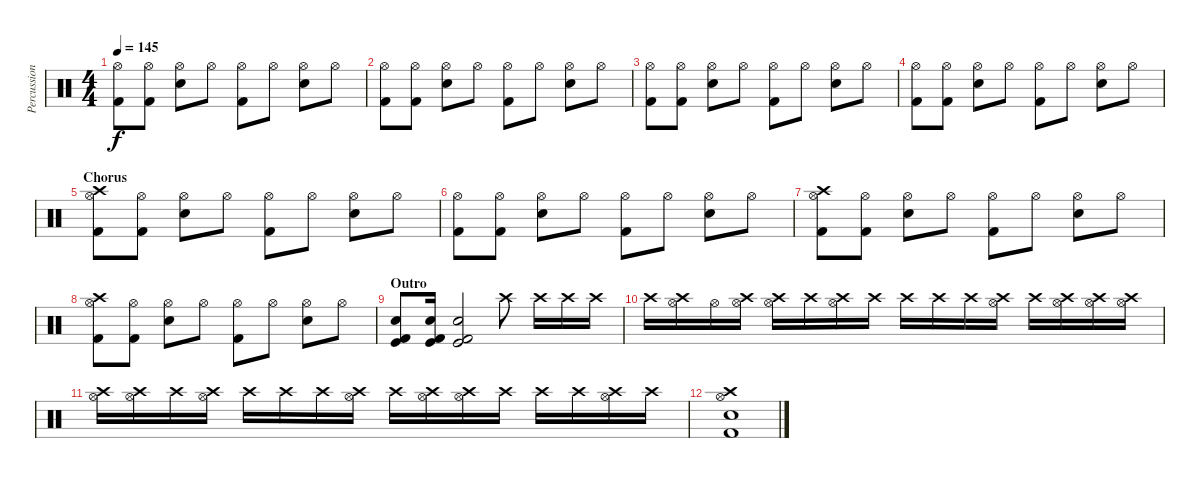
\track ("Percussion" "Percussion") {instrument percussion}
\staff {score}
\articulation defaults
\ts (4 4)
\tempo 145
\clef neutral
\ks c
("Hi-Hat (open)" "Kick (hit) 2").8{dy f} ("Hi-Hat (open)" "Kick (hit) 2").8 ("Hi-Hat (open)" "Snare (hit) 2").8 "Hi-Hat (open)".8 ("Hi-Hat (open)" "Kick (hit) 2").8 "Hi-Hat (open)".8 ("Hi-Hat (open)" "Snare (hit) 2").8 "Hi-Hat (open)".8 |
("Hi-Hat (open)" "Kick (hit) 2").8 ("Hi-Hat (open)" "Kick (hit) 2").8 ("Hi-Hat (open)" "Snare (hit) 2").8 "Hi-Hat (open)".8 ("Hi-Hat (open)" "Kick (hit) 2").8 "Hi-Hat (open)".8 ("Hi-Hat (open)" "Snare (hit) 2").8 "Hi-Hat (open)".8 |
("Hi-Hat (open)" "Kick (hit) 2").8 ("Hi-Hat (open)" "Kick (hit) 2").8 ("Hi-Hat (open)" "Snare (hit) 2").8 "Hi-Hat (open)".8 ("Hi-Hat (open)" "Kick (hit) 2").8 "Hi-Hat (open)".8 ("Hi-Hat (open)" "Snare (hit) 2").8 "Hi-Hat (open)".8 |
("Hi-Hat (open)" "Kick (hit) 2").8 ("Hi-Hat (open)" "Kick (hit) 2").8 ("Hi-Hat (open)" "Snare (hit) 2").8 "Hi-Hat (open)".8 ("Hi-Hat (open)" "Kick (hit) 2").8 "Hi-Hat (open)".8 ("Hi-Hat (open)" "Snare (hit) 2").8 "Hi-Hat (open)".8 |
\section ("" "Chorus")
("Hi-Hat (open)" "Kick (hit) 2" "Crash high (hit)").8 ("Hi-Hat (open)" "Kick (hit) 2").8 ("Hi-Hat (open)" "Snare (hit) 2").8 "Hi-Hat (open)".8 ("Hi-Hat (open)" "Kick (hit) 2").8 "Hi-Hat (open)".8 ("Hi-Hat (open)" "Snare (hit) 2").8 "Hi-Hat (open)".8 |
("Hi-Hat (open)" "Kick (hit) 2").8 ("Hi-Hat (open)" "Kick (hit) 2").8 ("Hi-Hat (open)" "Snare (hit) 2").8 "Hi-Hat (open)".8 ("Hi-Hat (open)" "Kick (hit) 2").8 "Hi-Hat (open)".8 ("Hi-Hat (open)" "Snare (hit) 2").8 "Hi-Hat (open)".8 |
("Hi-Hat (open)" "Kick (hit) 2" "Crash high (hit)").8 ("Hi-Hat (open)" "Kick (hit) 2").8 ("Hi-Hat (open)" "Snare (hit) 2").8 "Hi-Hat (open)".8 ("Hi-Hat (open)" "Kick (hit) 2").8 "Hi-Hat (open)".8 ("Hi-Hat (open)" "Snare (hit) 2").8 "Hi-Hat (open)".8 |
("Hi-Hat (open)" "Kick (hit) 2" "Crash high (hit)").8 ("Hi-Hat (open)" "Kick (hit) 2").8 ("Hi-Hat (open)" "Snare (hit) 2").8 "Hi-Hat (open)".8 ("Hi-Hat (open)" "Kick (hit) 2").8 "Hi-Hat (open)".8 ("Hi-Hat (open)" "Snare (hit) 2").8 "Hi-Hat (open)".8 |
\section ("" "Outro")
("Snare (hit) 2" "Kick (hit) 2" "Kick (hit)").8 ("Snare (hit) 2" "Kick (hit) 2" "Kick (hit)").16 ("Snare (hit) 2" "Kick (hit) 2" "Kick (hit)").2 "Crash high (hit)".8 "Crash high (hit)".16 "Crash high (hit)".16 "Crash high (hit)".16 |
"Crash high (hit)".16 ("Crash high (hit)" "Hi-Hat (open)").16 "Hi-Hat (open)".16 ("Crash high (hit)" "Hi-Hat (open)").16 ("Crash high (hit)" "Hi-Hat (open)").16 "Crash high (hit)".16 ("Crash high (hit)" "Hi-Hat (open)").16 "Crash high (hit)".16 "Crash high (hit)".16 "Crash high (hit)".16 "Crash high (hit)".16 ("Crash high (hit)" "Hi-Hat (open)").16 "Crash high (hit)".16 ("Crash high (hit)" "Hi-Hat (open)").16 ("Crash high (hit)" "Hi-Hat (open)").16 ("Crash high (hit)" "Hi-Hat (open)").16 |
("Crash high (hit)" "Hi-Hat (open)").16 ("Crash high (hit)" "Hi-Hat (open)").16 "Crash high (hit)".16 ("Crash high (hit)" "Hi-Hat (open)").16 "Crash high (hit)".16 "Crash high (hit)".16 "Crash high (hit)".16 ("Crash high (hit)" "Hi-Hat (open)").16 "Crash high (hit)".16 ("Crash high (hit)" "Hi-Hat (open)").16 ("Crash high (hit)" "Hi-Hat (open)").16 "Crash high (hit)".16 "Crash high (hit)".16 "Crash high (hit)".16 ("Crash high (hit)" "Hi-Hat (open)").16 "Crash high (hit)".16 |
("Kick (hit) 2" "Snare (hit) 2" "Hi-Hat (open)" "Crash high (hit)").1
